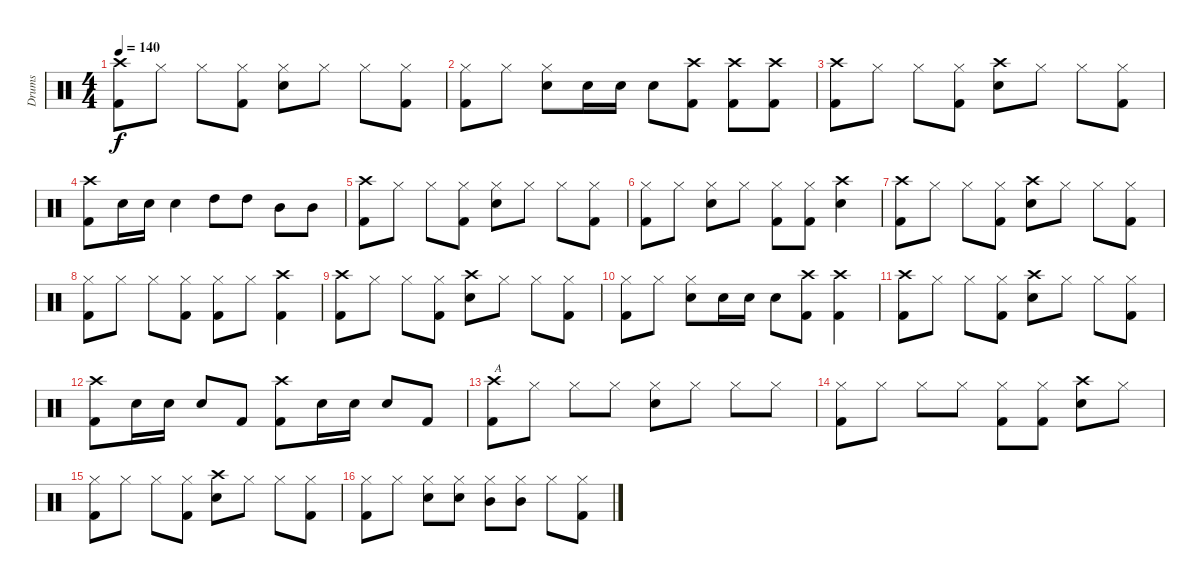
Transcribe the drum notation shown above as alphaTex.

\track ("Drums" "Drums") {instrument percussion}
\staff {score}
\articulation defaults
\ts (4 4)
\tempo 140
\clef neutral
\ks c
("Crash high (hit)" "Kick (hit) 2").8{dy f} "Hi-Hat (closed)".8 "Hi-Hat (closed)".8 ("Hi-Hat (closed)" "Kick (hit) 2").8 ("Hi-Hat (closed)" "Snare (hit) 2").8 "Hi-Hat (closed)".8 "Hi-Hat (closed)".8 ("Hi-Hat (closed)" "Kick (hit) 2").8 |
("Hi-Hat (closed)" "Kick (hit) 2").8 "Hi-Hat (closed)".8 ("Hi-Hat (closed)" "Snare (hit) 2").8 "Snare (hit) 2".16 "Snare (hit) 2".16 "Snare (hit) 2".8 ("Crash high (hit)" "Kick (hit) 2").8 ("Crash high (hit)" "Kick (hit) 2").8 ("Crash high (hit)" "Kick (hit) 2").8 |
("Crash high (hit)" "Kick (hit) 2").8 "Hi-Hat (closed)".8 "Hi-Hat (closed)".8 ("Hi-Hat (closed)" "Kick (hit) 2").8 ("Crash high (hit)" "Snare (hit) 2").8 "Hi-Hat (closed)".8 "Hi-Hat (closed)".8 ("Hi-Hat (closed)" "Kick (hit) 2").8 |
("Crash high (hit)" "Kick (hit) 2").8 "Snare (hit) 2".16 "Snare (hit) 2".16 "Snare (hit) 2".4 "High Tom (hit)".8 "High Tom (hit)".8 "Mid Tom (hit)".8 "Mid Tom (hit)".8 |
("Crash high (hit)" "Kick (hit) 2").8 "Hi-Hat (closed)".8 "Hi-Hat (closed)".8 ("Hi-Hat (closed)" "Kick (hit) 2").8 ("Hi-Hat (closed)" "Snare (hit) 2").8 "Hi-Hat (closed)".8 "Hi-Hat (closed)".8 ("Hi-Hat (closed)" "Kick (hit) 2").8 |
("Hi-Hat (closed)" "Kick (hit) 2").8 "Hi-Hat (closed)".8 ("Hi-Hat (closed)" "Snare (hit) 2").8 "Hi-Hat (closed)".8 ("Hi-Hat (closed)" "Kick (hit) 2").8 ("Hi-Hat (closed)" "Kick (hit) 2").8 ("Crash high (hit)" "Snare (hit) 2").4 |
("Crash high (hit)" "Kick (hit) 2").8 "Hi-Hat (closed)".8 "Hi-Hat (closed)".8 ("Hi-Hat (closed)" "Kick (hit) 2").8 ("Crash high (hit)" "Snare (hit) 2").8 "Hi-Hat (closed)".8 "Hi-Hat (closed)".8 ("Hi-Hat (closed)" "Kick (hit) 2").8 |
("Hi-Hat (closed)" "Kick (hit) 2").8 "Hi-Hat (closed)".8 "Hi-Hat (closed)".8 ("Hi-Hat (closed)" "Kick (hit) 2").8 ("Hi-Hat (closed)" "Kick (hit) 2").8 "Hi-Hat (closed)".8 ("Crash high (hit)" "Kick (hit) 2").4 |
("Crash high (hit)" "Kick (hit) 2").8 "Hi-Hat (closed)".8 "Hi-Hat (closed)".8 ("Hi-Hat (closed)" "Kick (hit) 2").8 ("Crash high (hit)" "Snare (hit) 2").8 "Hi-Hat (closed)".8 "Hi-Hat (closed)".8 ("Hi-Hat (closed)" "Kick (hit) 2").8 |
("Hi-Hat (closed)" "Kick (hit) 2").8 "Hi-Hat (closed)".8 ("Hi-Hat (closed)" "Snare (hit) 2").8 "Snare (hit) 2".16 "Snare (hit) 2".16 "Snare (hit) 2".8 ("Crash high (hit)" "Kick (hit) 2").8 ("Crash high (hit)" "Kick (hit) 2").4 |
("Crash high (hit)" "Kick (hit) 2").8 "Hi-Hat (closed)".8 "Hi-Hat (closed)".8 ("Hi-Hat (closed)" "Kick (hit) 2").8 ("Crash high (hit)" "Snare (hit) 2").8 "Hi-Hat (closed)".8 "Hi-Hat (closed)".8 ("Hi-Hat (closed)" "Kick (hit) 2").8 |
("Crash high (hit)" "Kick (hit) 2").8 "Snare (hit) 2".16 "Snare (hit) 2".16 "Snare (hit) 2".8 "Kick (hit) 2".8 ("Crash high (hit)" "Kick (hit) 2").8 "Snare (hit) 2".16 "Snare (hit) 2".16 "Snare (hit) 2".8 "Kick (hit) 2".8 |
("Crash high (hit)" "Kick (hit) 2").8{txt "A"} "Hi-Hat (closed)".8 "Hi-Hat (closed)".8 "Hi-Hat (closed)".8 ("Hi-Hat (closed)" "Snare (hit) 2").8 "Hi-Hat (closed)".8 "Hi-Hat (closed)".8 "Hi-Hat (closed)".8 |
("Hi-Hat (closed)" "Kick (hit) 2").8 "Hi-Hat (closed)".8 "Hi-Hat (closed)".8 "Hi-Hat (closed)".8 ("Hi-Hat (closed)" "Kick (hit) 2").8 ("Hi-Hat (closed)" "Kick (hit) 2").8 ("Crash high (hit)" "Snare (hit) 2").8 "Hi-Hat (closed)".8 |
("Hi-Hat (closed)" "Kick (hit) 2").8 "Hi-Hat (closed)".8 "Hi-Hat (closed)".8 ("Hi-Hat (closed)" "Kick (hit) 2").8 ("Crash high (hit)" "Snare (hit) 2").8 "Hi-Hat (closed)".8 "Hi-Hat (closed)".8 ("Hi-Hat (closed)" "Kick (hit) 2").8 |
("Hi-Hat (closed)" "Kick (hit) 2").8 "Hi-Hat (closed)".8 ("Hi-Hat (closed)" "Snare (hit) 2").8 ("Hi-Hat (closed)" "Snare (hit) 2").8 ("Hi-Hat (closed)" "Mid Tom (hit)").8 ("Hi-Hat (closed)" "Mid Tom (hit)").8 "Hi-Hat (closed)".8 ("Hi-Hat (closed)" "Kick (hit) 2").8
